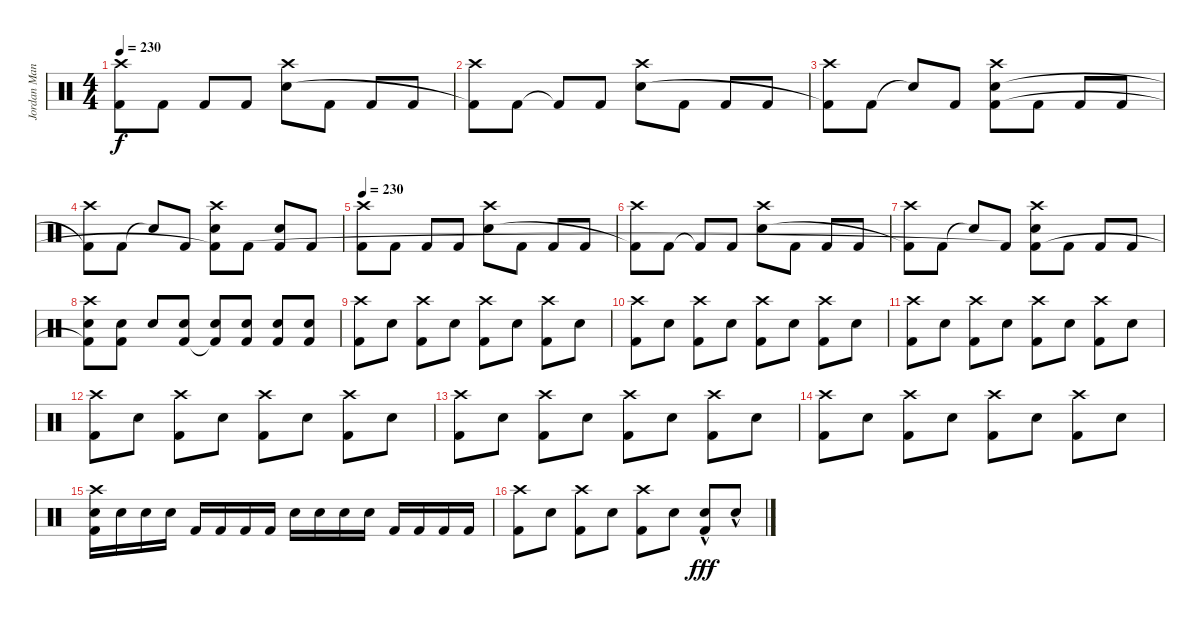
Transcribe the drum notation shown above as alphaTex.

\track ("Jordan Mancino" "Jordan Man") {instrument percussion}
\staff {score}
\articulation defaults
\ts (4 4)
\tempo 230
\clef neutral
\ks c
("Crash high (hit)" "Kick (hit) 2").8{dy f} "Kick (hit) 2".8 "Kick (hit) 2".8 "Kick (hit) 2".8 ("Crash high (hit)" "Electric Snare (hit)").8 "Kick (hit) 2".8 "Kick (hit) 2".8 "Kick (hit) 2".8 |
("Crash high (hit)" "Kick (hit) 2"{t}).8 "Kick (hit) 2".8 "Kick (hit) 2"{t}.8 "Kick (hit) 2".8 ("Crash high (hit)" "Electric Snare (hit)").8 "Kick (hit) 2".8 "Kick (hit) 2".8 "Kick (hit) 2".8 |
("Crash high (hit)" "Kick (hit) 2"{t}).8 "Kick (hit) 2".8 "Snare (hit)"{t}.8 "Kick (hit) 2".8 ("Crash high (hit)" "Electric Snare (hit)" "Kick (hit) 2"{t}).8 "Kick (hit) 2".8 "Kick (hit) 2".8 "Kick (hit) 2".8 |
("Crash high (hit)" "Kick (hit) 2"{t}).8 "Kick (hit) 2".8 "Snare (hit)"{t}.8 "Kick (hit) 2".8 ("Crash high (hit)" "Electric Snare (hit)" "Kick (hit) 2"{t}).8 "Kick (hit) 2".8 ("Electric Snare (hit)" "Kick (hit) 2").8 "Kick (hit) 2".8 |
\tempo 230
("Crash high (hit)" "Kick (hit) 2").8 "Kick (hit) 2".8 "Kick (hit) 2".8 "Kick (hit) 2".8 ("Crash high (hit)" "Electric Snare (hit)").8 "Kick (hit) 2".8 "Kick (hit) 2".8 "Kick (hit) 2".8 |
("Crash high (hit)" "Kick (hit) 2"{t}).8 "Kick (hit) 2".8 "Kick (hit) 2"{t}.8 "Kick (hit) 2".8 ("Crash high (hit)" "Electric Snare (hit)").8 "Kick (hit) 2".8 "Kick (hit) 2".8 "Kick (hit) 2".8 |
("Crash high (hit)" "Kick (hit) 2"{t}).8 "Kick (hit) 2".8 "Snare (hit)"{t}.8 "Kick (hit) 2".8 ("Crash high (hit)" "Electric Snare (hit)" "Kick (hit) 2"{t}).8 "Kick (hit) 2".8 "Kick (hit) 2".8 "Kick (hit) 2".8 |
("Crash high (hit)" "Electric Snare (hit)" "Kick (hit) 2"{t}).8 ("Electric Snare (hit)" "Kick (hit) 2").8 "Electric Snare (hit)".8 ("Electric Snare (hit)" "Kick (hit) 2").8 ("Electric Snare (hit)" "Kick (hit) 2"{t}).8 ("Electric Snare (hit)" "Kick (hit) 2").8 ("Electric Snare (hit)" "Kick (hit) 2").8 ("Electric Snare (hit)" "Kick (hit) 2").8 |
("Crash high (hit)" "Kick (hit) 2").8 "Electric Snare (hit)".8 ("Crash high (hit)" "Kick (hit) 2").8 "Electric Snare (hit)".8 ("Crash high (hit)" "Kick (hit) 2").8 "Electric Snare (hit)".8 ("Crash high (hit)" "Kick (hit) 2").8 "Electric Snare (hit)".8 |
("Crash high (hit)" "Kick (hit) 2").8 "Electric Snare (hit)".8 ("Crash high (hit)" "Kick (hit) 2").8 "Electric Snare (hit)".8 ("Crash high (hit)" "Kick (hit) 2").8 "Electric Snare (hit)".8 ("Crash high (hit)" "Kick (hit) 2").8 "Electric Snare (hit)".8 |
("Crash high (hit)" "Kick (hit) 2").8 "Electric Snare (hit)".8 ("Crash high (hit)" "Kick (hit) 2").8 "Electric Snare (hit)".8 ("Crash high (hit)" "Kick (hit) 2").8 "Electric Snare (hit)".8 ("Crash high (hit)" "Kick (hit) 2").8 "Electric Snare (hit)".8 |
("Crash high (hit)" "Kick (hit) 2").8 "Electric Snare (hit)".8 ("Crash high (hit)" "Kick (hit) 2").8 "Electric Snare (hit)".8 ("Crash high (hit)" "Kick (hit) 2").8 "Electric Snare (hit)".8 ("Crash high (hit)" "Kick (hit) 2").8 "Electric Snare (hit)".8 |
("Crash high (hit)" "Kick (hit) 2").8 "Electric Snare (hit)".8 ("Crash high (hit)" "Kick (hit) 2").8 "Electric Snare (hit)".8 ("Crash high (hit)" "Kick (hit) 2").8 "Electric Snare (hit)".8 ("Crash high (hit)" "Kick (hit) 2").8 "Electric Snare (hit)".8 |
("Crash high (hit)" "Kick (hit) 2").8 "Electric Snare (hit)".8 ("Crash high (hit)" "Kick (hit) 2").8 "Electric Snare (hit)".8 ("Crash high (hit)" "Kick (hit) 2").8 "Electric Snare (hit)".8 ("Crash high (hit)" "Kick (hit) 2").8 "Electric Snare (hit)".8 |
("Crash high (hit)" "Electric Snare (hit)" "Kick (hit) 2").16 "Electric Snare (hit)".16 "Electric Snare (hit)".16 "Electric Snare (hit)".16 "Kick (hit) 2".16 "Kick (hit) 2".16 "Kick (hit) 2".16 "Kick (hit) 2".16 "Electric Snare (hit)".16 "Electric Snare (hit)".16 "Electric Snare (hit)".16 "Electric Snare (hit)".16 "Kick (hit) 2".16 "Kick (hit) 2".16 "Kick (hit) 2".16 "Kick (hit) 2".16 |
("Crash high (hit)" "Kick (hit) 2").8 "Electric Snare (hit)".8 ("Crash high (hit)" "Kick (hit) 2").8 "Electric Snare (hit)".8 ("Crash high (hit)" "Kick (hit) 2").8 "Electric Snare (hit)".8 ("Electric Snare (hit)"{hac} "Kick (hit) 2").8{dy fff} "Electric Snare (hit)"{hac}.8
